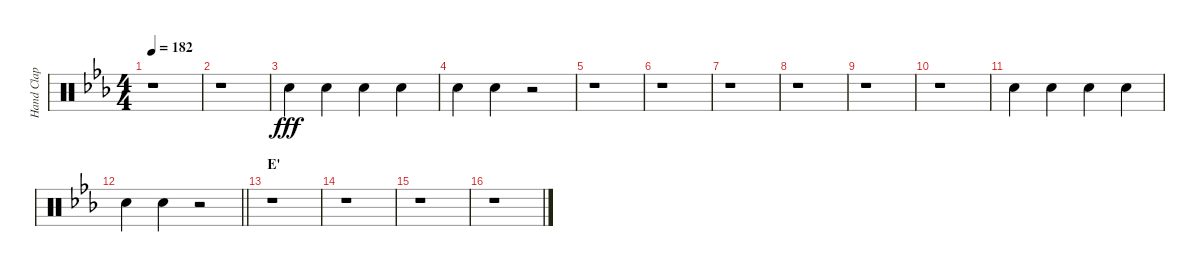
\track ("Hand Clap" "Hand Clap") {instrument percussion}
\staff {score}
\articulation defaults
\ts (4 4)
\tempo 182
\clef neutral
\ks eb
r.1{dy fff} |
r.1 |
"Hand Clap (hit)".4 "Hand Clap (hit)".4 "Hand Clap (hit)".4 "Hand Clap (hit)".4 |
"Hand Clap (hit)".4 "Hand Clap (hit)".4 r.2 |
r.1 |
r.1 |
r.1 |
r.1 |
r.1 |
r.1 |
"Hand Clap (hit)".4 "Hand Clap (hit)".4 "Hand Clap (hit)".4 "Hand Clap (hit)".4 |
\barLineRight lightlight "Hand Clap (hit)".4 "Hand Clap (hit)".4
r.2 |
\section ("" "E'")
r.1 |
r.1 |
r.1 |
r.1
